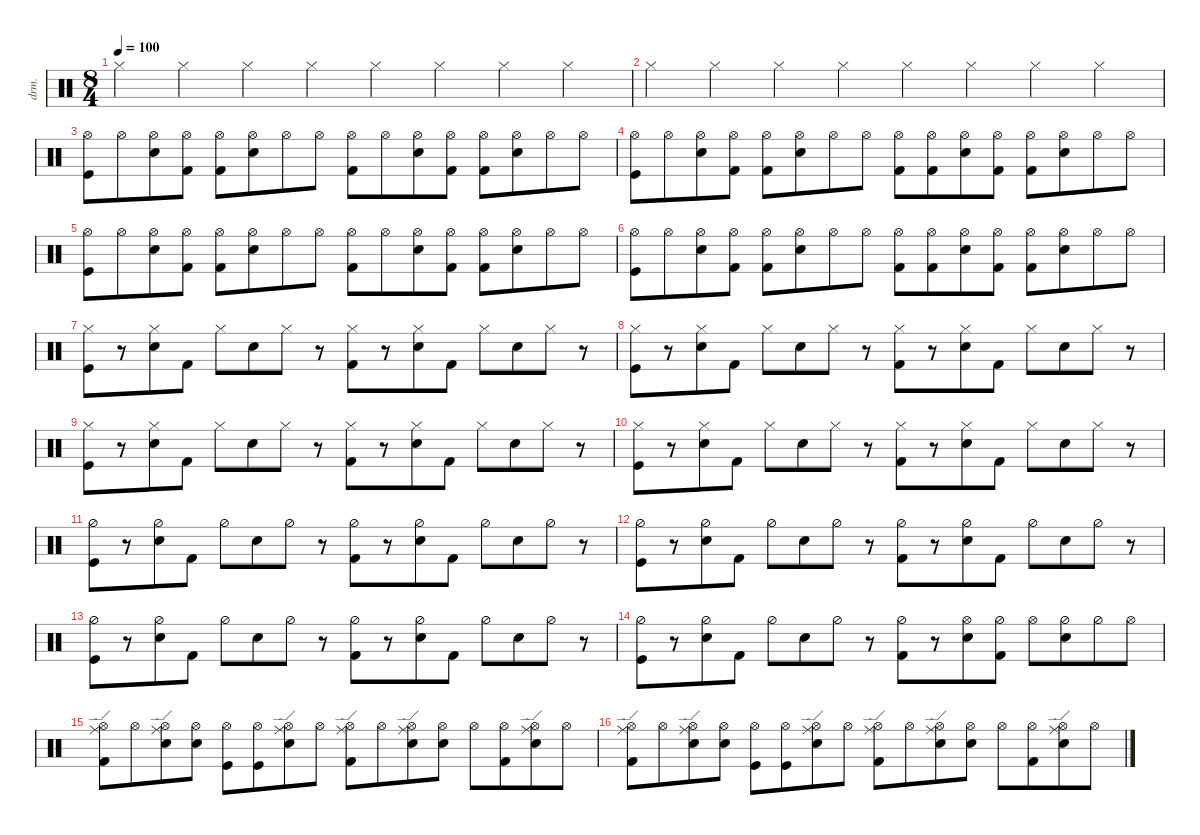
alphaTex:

\defaultSystemsLayout 4
\hideDynamics
\bracketExtendMode nobrackets
\otherSystemsTrackNameOrientation horizontal
\track ("Drumkit" "drm.") {instrument percussion}
\staff {score}
\articulation defaults
\ts (8 4)
\beaming (8 4 4 4 4)
\tempo 100
\clef neutral
\ks c "Hi-Hat (closed)".4{dy mf beam Down} "Hi-Hat (closed)".4{beam Down} "Hi-Hat (closed)".4{beam Down} "Hi-Hat (closed)".4{beam Down} "Hi-Hat (closed)".4{beam Down} "Hi-Hat (closed)".4{beam Down} "Hi-Hat (closed)".4{beam Down} "Hi-Hat (closed)".4{beam Down}
|
"Hi-Hat (closed)".4{beam Down} "Hi-Hat (closed)".4{beam Down} "Hi-Hat (closed)".4{beam Down} "Hi-Hat (closed)".4{beam Down} "Hi-Hat (closed)".4{beam Down} "Hi-Hat (closed)".4{beam Down} "Hi-Hat (closed)".4{beam Down} "Hi-Hat (closed)".4{beam Down} |
("Kick (hit)" "Hi-Hat (open)").8{beam Down} "Hi-Hat (open)".8{beam Down} ("Hi-Hat (open)" "Snare (hit) 2").8{beam Down} ("Kick (hit) 2" "Hi-Hat (open)").8{beam Down} ("Hi-Hat (open)" "Kick (hit) 2").8{beam Down} ("Snare (hit) 2" "Hi-Hat (open)").8{beam Down} "Hi-Hat (open)".8{beam Down} "Hi-Hat (open)".8{beam Down} ("Hi-Hat (open)" "Kick (hit) 2").8{beam Down} "Hi-Hat (open)".8{beam Down} ("Hi-Hat (open)" "Snare (hit) 2").8{beam Down} ("Kick (hit) 2" "Hi-Hat (open)").8{beam Down} ("Hi-Hat (open)" "Kick (hit) 2").8{beam Down} ("Snare (hit) 2" "Hi-Hat (open)").8{beam Down} "Hi-Hat (open)".8{beam Down} "Hi-Hat (open)".8{beam Down} |
("Kick (hit)" "Hi-Hat (open)").8{beam Down} "Hi-Hat (open)".8{beam Down} ("Hi-Hat (open)" "Snare (hit) 2").8{beam Down} ("Kick (hit) 2" "Hi-Hat (open)").8{beam Down} ("Hi-Hat (open)" "Kick (hit) 2").8{beam Down} ("Snare (hit) 2" "Hi-Hat (open)").8{beam Down} "Hi-Hat (open)".8{beam Down} "Hi-Hat (open)".8{beam Down} ("Hi-Hat (open)" "Kick (hit) 2").8{beam Down} ("Hi-Hat (open)" "Kick (hit) 2").8{beam Down} ("Hi-Hat (open)" "Snare (hit) 2").8{beam Down} ("Kick (hit) 2" "Hi-Hat (open)").8{beam Down} ("Hi-Hat (open)" "Kick (hit) 2").8{beam Down} ("Snare (hit) 2" "Hi-Hat (open)").8{beam Down} "Hi-Hat (open)".8{beam Down} "Hi-Hat (open)".8{beam Down} |
("Kick (hit)" "Hi-Hat (open)").8{beam Down} "Hi-Hat (open)".8{beam Down} ("Hi-Hat (open)" "Snare (hit) 2").8{beam Down} ("Kick (hit) 2" "Hi-Hat (open)").8{beam Down} ("Hi-Hat (open)" "Kick (hit) 2").8{beam Down} ("Snare (hit) 2" "Hi-Hat (open)").8{beam Down} "Hi-Hat (open)".8{beam Down} "Hi-Hat (open)".8{beam Down} ("Hi-Hat (open)" "Kick (hit) 2").8{beam Down} "Hi-Hat (open)".8{beam Down} ("Hi-Hat (open)" "Snare (hit) 2").8{beam Down} ("Kick (hit) 2" "Hi-Hat (open)").8{beam Down} ("Hi-Hat (open)" "Kick (hit) 2").8{beam Down} ("Snare (hit) 2" "Hi-Hat (open)").8{beam Down} "Hi-Hat (open)".8{beam Down} "Hi-Hat (open)".8{beam Down} |
("Kick (hit)" "Hi-Hat (open)").8{beam Down} "Hi-Hat (open)".8{beam Down} ("Hi-Hat (open)" "Snare (hit) 2").8{beam Down} ("Kick (hit) 2" "Hi-Hat (open)").8{beam Down} ("Hi-Hat (open)" "Kick (hit) 2").8{beam Down} ("Snare (hit) 2" "Hi-Hat (open)").8{beam Down} "Hi-Hat (open)".8{beam Down} "Hi-Hat (open)".8{beam Down} ("Hi-Hat (open)" "Kick (hit) 2").8{beam Down} ("Hi-Hat (open)" "Kick (hit) 2").8{beam Down} ("Hi-Hat (open)" "Snare (hit) 2").8{beam Down} ("Kick (hit) 2" "Hi-Hat (open)").8{beam Down} ("Hi-Hat (open)" "Kick (hit) 2").8{beam Down} ("Snare (hit) 2" "Hi-Hat (open)").8{beam Down} "Hi-Hat (open)".8{beam Down} "Hi-Hat (open)".8{beam Down} |
("Kick (hit)" "Hi-Hat (closed)").8{beam Down} r.8{beam Down} ("Hi-Hat (closed)" "Snare (hit) 2").8{beam Down} "Kick (hit) 2".8{beam Down} "Hi-Hat (closed)".8{beam Down} "Snare (hit) 2".8{beam Down} "Hi-Hat (closed)".8{beam Down} r.8{beam Down} ("Hi-Hat (closed)" "Kick (hit) 2").8{beam Down} r.8{beam Down} ("Hi-Hat (closed)" "Snare (hit) 2").8{beam Down} "Kick (hit) 2".8{beam Down} "Hi-Hat (closed)".8{beam Down} "Snare (hit) 2".8{beam Down} "Hi-Hat (closed)".8{beam Down} r.8{beam Down} |
("Kick (hit)" "Hi-Hat (closed)").8{beam Down} r.8{beam Down} ("Hi-Hat (closed)" "Snare (hit) 2").8{beam Down} "Kick (hit) 2".8{beam Down} "Hi-Hat (closed)".8{beam Down} "Snare (hit) 2".8{beam Down} "Hi-Hat (closed)".8{beam Down} r.8{beam Down} ("Hi-Hat (closed)" "Kick (hit) 2").8{beam Down} r.8{beam Down} ("Hi-Hat (closed)" "Snare (hit) 2").8{beam Down} "Kick (hit) 2".8{beam Down} "Hi-Hat (closed)".8{beam Down} "Snare (hit) 2".8{beam Down} "Hi-Hat (closed)".8{beam Down} r.8{beam Down} |
("Kick (hit)" "Hi-Hat (closed)").8{beam Down} r.8{beam Down} ("Hi-Hat (closed)" "Snare (hit) 2").8{beam Down} "Kick (hit) 2".8{beam Down} "Hi-Hat (closed)".8{beam Down} "Snare (hit) 2".8{beam Down} "Hi-Hat (closed)".8{beam Down} r.8{beam Down} ("Hi-Hat (closed)" "Kick (hit) 2").8{beam Down} r.8{beam Down} ("Hi-Hat (closed)" "Snare (hit) 2").8{beam Down} "Kick (hit) 2".8{beam Down} "Hi-Hat (closed)".8{beam Down} "Snare (hit) 2".8{beam Down} "Hi-Hat (closed)".8{beam Down} r.8{beam Down} |
("Kick (hit)" "Hi-Hat (closed)").8{beam Down} r.8{beam Down} ("Hi-Hat (closed)" "Snare (hit) 2").8{beam Down} "Kick (hit) 2".8{beam Down} "Hi-Hat (closed)".8{beam Down} "Snare (hit) 2".8{beam Down} "Hi-Hat (closed)".8{beam Down} r.8{beam Down} ("Hi-Hat (closed)" "Kick (hit) 2").8{beam Down} r.8{beam Down} ("Hi-Hat (closed)" "Snare (hit) 2").8{beam Down} "Kick (hit) 2".8{beam Down} "Hi-Hat (closed)".8{beam Down} "Snare (hit) 2".8{beam Down} "Hi-Hat (closed)".8{beam Down} r.8{beam Down} |
("Kick (hit)" "Hi-Hat (half)").8{beam Down} r.8{beam Down} ("Hi-Hat (half)" "Snare (hit) 2").8{beam Down} "Kick (hit) 2".8{beam Down} "Hi-Hat (half)".8{beam Down} "Snare (hit) 2".8{beam Down} "Hi-Hat (half)".8{beam Down} r.8{beam Down} ("Hi-Hat (half)" "Kick (hit) 2").8{beam Down} r.8{beam Down} ("Hi-Hat (half)" "Snare (hit) 2").8{beam Down} "Kick (hit) 2".8{beam Down} "Hi-Hat (half)".8{beam Down} "Snare (hit) 2".8{beam Down} "Hi-Hat (half)".8{beam Down} r.8{beam Down} |
("Kick (hit)" "Hi-Hat (half)").8{beam Down} r.8{beam Down} ("Hi-Hat (half)" "Snare (hit) 2").8{beam Down} "Kick (hit) 2".8{beam Down} "Hi-Hat (half)".8{beam Down} "Snare (hit) 2".8{beam Down} "Hi-Hat (half)".8{beam Down} r.8{beam Down} ("Hi-Hat (half)" "Kick (hit) 2").8{beam Down} r.8{beam Down} ("Hi-Hat (half)" "Snare (hit) 2").8{beam Down} "Kick (hit) 2".8{beam Down} "Hi-Hat (half)".8{beam Down} "Snare (hit) 2".8{beam Down} "Hi-Hat (half)".8{beam Down} r.8{beam Down} |
("Kick (hit)" "Hi-Hat (half)").8{beam Down} r.8{beam Down} ("Hi-Hat (half)" "Snare (hit) 2").8{beam Down} "Kick (hit) 2".8{beam Down} "Hi-Hat (half)".8{beam Down} "Snare (hit) 2".8{beam Down} "Hi-Hat (half)".8{beam Down} r.8{beam Down} ("Hi-Hat (half)" "Kick (hit) 2").8{beam Down} r.8{beam Down} ("Hi-Hat (half)" "Snare (hit) 2").8{beam Down} "Kick (hit) 2".8{beam Down} "Hi-Hat (half)".8{beam Down} "Snare (hit) 2".8{beam Down} "Hi-Hat (half)".8{beam Down} r.8{beam Down} |
("Kick (hit)" "Hi-Hat (half)").8{beam Down} r.8{beam Down} ("Hi-Hat (half)" "Snare (hit) 2").8{beam Down} "Kick (hit) 2".8{beam Down} "Hi-Hat (half)".8{beam Down} "Snare (hit) 2".8{beam Down} "Hi-Hat (half)".8{beam Down} r.8{beam Down} ("Hi-Hat (half)" "Kick (hit) 2").8{beam Down} r.8{beam Down} ("Hi-Hat (open)" "Snare (hit) 2").8{beam Down} ("Kick (hit) 2" "Hi-Hat (half)").8{beam Down} "Hi-Hat (open)".8{beam Down} ("Snare (hit) 2" "Hi-Hat (half)").8{beam Down} "Hi-Hat (half)".8{beam Down} "Hi-Hat (open)".8{beam Down} |
("Hi-Hat (open)" "Kick (hit) 2" "Ride (edge)").8{beam Down} "Hi-Hat (open)".8{beam Down} ("Hi-Hat (open)" "Snare (hit) 2" "Ride (edge)").8{beam Down} ("Hi-Hat (open)" "Snare (hit) 2").8{beam Down} ("Hi-Hat (open)" "Kick (hit)").8{beam Down} ("Hi-Hat (open)" "Kick (hit)").8{beam Down} ("Hi-Hat (open)" "Snare (hit) 2" "Ride (edge)").8{beam Down} "Hi-Hat (open)".8{beam Down} ("Hi-Hat (open)" "Kick (hit) 2" "Ride (edge)").8{beam Down} "Hi-Hat (open)".8{beam Down} ("Hi-Hat (open)" "Snare (hit) 2" "Ride (edge)").8{beam Down} ("Hi-Hat (open)" "Snare (hit) 2").8{beam Down} "Hi-Hat (open)".8{beam Down} ("Hi-Hat (open)" "Kick (hit) 2").8{beam Down} ("Hi-Hat (open)" "Snare (hit) 2" "Ride (edge)").8{beam Down} "Hi-Hat (open)".8{beam Down} |
("Hi-Hat (open)" "Kick (hit) 2" "Ride (edge)").8{beam Down} "Hi-Hat (open)".8{beam Down} ("Hi-Hat (open)" "Snare (hit) 2" "Ride (edge)").8{beam Down} ("Hi-Hat (open)" "Snare (hit) 2").8{beam Down} ("Hi-Hat (open)" "Kick (hit)").8{beam Down} ("Hi-Hat (open)" "Kick (hit)").8{beam Down} ("Hi-Hat (open)" "Snare (hit) 2" "Ride (edge)").8{beam Down} "Hi-Hat (open)".8{beam Down} ("Hi-Hat (open)" "Kick (hit) 2" "Ride (edge)").8{beam Down} "Hi-Hat (open)".8{beam Down} ("Hi-Hat (open)" "Snare (hit) 2" "Ride (edge)").8{beam Down} ("Hi-Hat (open)" "Snare (hit) 2").8{beam Down} "Hi-Hat (open)".8{beam Down} ("Hi-Hat (open)" "Kick (hit) 2").8{beam Down} ("Hi-Hat (open)" "Snare (hit) 2" "Ride (edge)").8{beam Down} "Hi-Hat (open)".8{beam Down}
